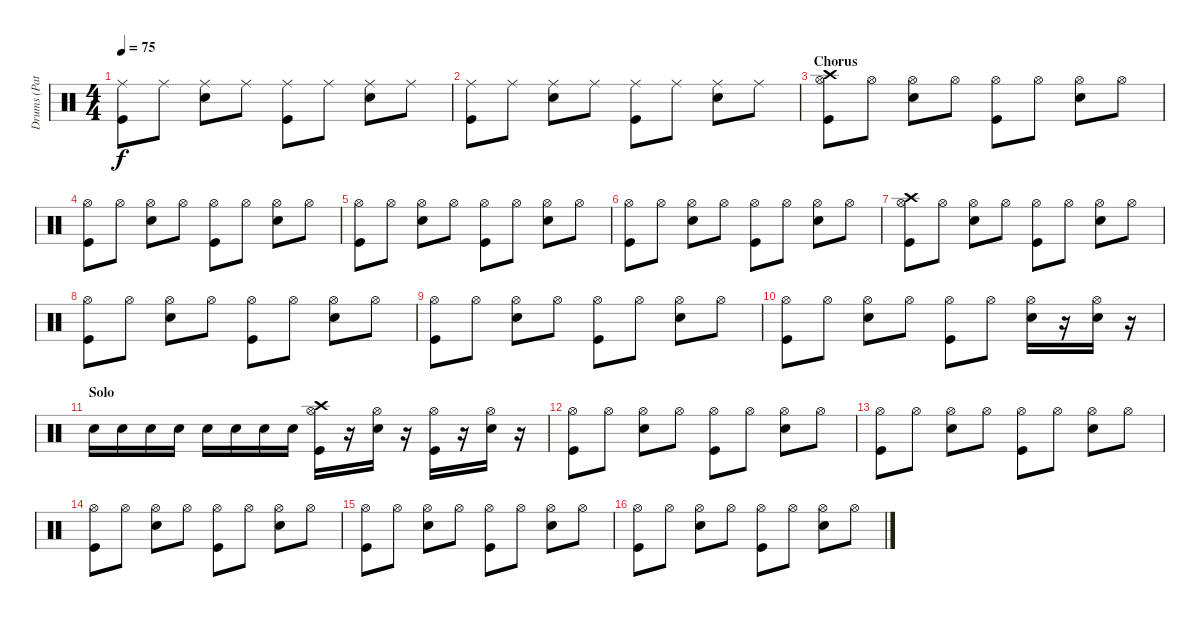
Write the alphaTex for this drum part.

\track ("Drums (Patrick Wilson)" "Drums (Pat") {instrument percussion}
\staff {score}
\articulation defaults
\ts (4 4)
\tempo 75
\clef neutral
\ks c
("Ride (middle)" "Kick (hit)").8{dy f} "Ride (middle)".8 ("Ride (middle)" "Electric Snare (hit)").8 "Ride (middle)".8 ("Ride (middle)" "Kick (hit)").8 "Ride (middle)".8 ("Ride (middle)" "Electric Snare (hit)").8 "Ride (middle)".8 |
("Ride (middle)" "Kick (hit)").8 "Ride (middle)".8 ("Ride (middle)" "Electric Snare (hit)").8 "Ride (middle)".8 ("Ride (middle)" "Kick (hit)").8 "Ride (middle)".8 ("Ride (middle)" "Electric Snare (hit)").8 "Ride (middle)".8 |
\section ("" "Chorus")
("Crash high (hit)" "Hi-Hat (open)" "Kick (hit)").8 "Hi-Hat (open)".8 ("Hi-Hat (open)" "Electric Snare (hit)").8 "Hi-Hat (open)".8 ("Hi-Hat (open)" "Kick (hit)").8 "Hi-Hat (open)".8 ("Hi-Hat (open)" "Electric Snare (hit)").8 "Hi-Hat (open)".8 |
("Hi-Hat (open)" "Kick (hit)").8 "Hi-Hat (open)".8 ("Hi-Hat (open)" "Electric Snare (hit)").8 "Hi-Hat (open)".8 ("Hi-Hat (open)" "Kick (hit)").8 "Hi-Hat (open)".8 ("Hi-Hat (open)" "Electric Snare (hit)").8 "Hi-Hat (open)".8 |
("Hi-Hat (open)" "Kick (hit)").8 "Hi-Hat (open)".8 ("Hi-Hat (open)" "Electric Snare (hit)").8 "Hi-Hat (open)".8 ("Hi-Hat (open)" "Kick (hit)").8 "Hi-Hat (open)".8 ("Hi-Hat (open)" "Electric Snare (hit)").8 "Hi-Hat (open)".8 |
("Hi-Hat (open)" "Kick (hit)").8 "Hi-Hat (open)".8 ("Hi-Hat (open)" "Electric Snare (hit)").8 "Hi-Hat (open)".8 ("Hi-Hat (open)" "Kick (hit)").8 "Hi-Hat (open)".8 ("Hi-Hat (open)" "Electric Snare (hit)").8 "Hi-Hat (open)".8 |
("Crash high (hit)" "Hi-Hat (open)" "Kick (hit)").8 "Hi-Hat (open)".8 ("Hi-Hat (open)" "Electric Snare (hit)").8 "Hi-Hat (open)".8 ("Hi-Hat (open)" "Kick (hit)").8 "Hi-Hat (open)".8 ("Hi-Hat (open)" "Electric Snare (hit)").8 "Hi-Hat (open)".8 |
("Hi-Hat (open)" "Kick (hit)").8 "Hi-Hat (open)".8 ("Hi-Hat (open)" "Electric Snare (hit)").8 "Hi-Hat (open)".8 ("Hi-Hat (open)" "Kick (hit)").8 "Hi-Hat (open)".8 ("Hi-Hat (open)" "Electric Snare (hit)").8 "Hi-Hat (open)".8 |
("Hi-Hat (open)" "Kick (hit)").8 "Hi-Hat (open)".8 ("Hi-Hat (open)" "Electric Snare (hit)").8 "Hi-Hat (open)".8 ("Hi-Hat (open)" "Kick (hit)").8 "Hi-Hat (open)".8 ("Hi-Hat (open)" "Electric Snare (hit)").8 "Hi-Hat (open)".8 |
("Hi-Hat (open)" "Kick (hit)").8 "Hi-Hat (open)".8 ("Hi-Hat (open)" "Electric Snare (hit)").8 "Hi-Hat (open)".8 ("Hi-Hat (open)" "Kick (hit)").8 "Hi-Hat (open)".8 ("Hi-Hat (open)" "Electric Snare (hit)").16 r.16 ("Hi-Hat (open)" "Electric Snare (hit)").16 r.16 |
\section ("" "Solo")
"Electric Snare (hit)".16 "Electric Snare (hit)".16 "Electric Snare (hit)".16 "Electric Snare (hit)".16 "Electric Snare (hit)".16 "Electric Snare (hit)".16 "Electric Snare (hit)".16 "Electric Snare (hit)".16 ("Crash high (hit)" "Hi-Hat (open)" "Kick (hit)").16 r.16 ("Hi-Hat (open)" "Electric Snare (hit)").16 r.16 ("Hi-Hat (open)" "Kick (hit)").16 r.16 ("Hi-Hat (open)" "Electric Snare (hit)").16 r.16 |
("Hi-Hat (open)" "Kick (hit)").8 "Hi-Hat (open)".8 ("Hi-Hat (open)" "Electric Snare (hit)").8 "Hi-Hat (open)".8 ("Hi-Hat (open)" "Kick (hit)").8 "Hi-Hat (open)".8 ("Hi-Hat (open)" "Electric Snare (hit)").8 "Hi-Hat (open)".8 |
("Hi-Hat (open)" "Kick (hit)").8 "Hi-Hat (open)".8 ("Hi-Hat (open)" "Electric Snare (hit)").8 "Hi-Hat (open)".8 ("Hi-Hat (open)" "Kick (hit)").8 "Hi-Hat (open)".8 ("Hi-Hat (open)" "Electric Snare (hit)").8 "Hi-Hat (open)".8 |
("Hi-Hat (open)" "Kick (hit)").8 "Hi-Hat (open)".8 ("Hi-Hat (open)" "Electric Snare (hit)").8 "Hi-Hat (open)".8 ("Hi-Hat (open)" "Kick (hit)").8 "Hi-Hat (open)".8 ("Hi-Hat (open)" "Electric Snare (hit)").8 "Hi-Hat (open)".8 |
("Hi-Hat (open)" "Kick (hit)").8 "Hi-Hat (open)".8 ("Hi-Hat (open)" "Electric Snare (hit)").8 "Hi-Hat (open)".8 ("Hi-Hat (open)" "Kick (hit)").8 "Hi-Hat (open)".8 ("Hi-Hat (open)" "Electric Snare (hit)").8 "Hi-Hat (open)".8 |
("Hi-Hat (open)" "Kick (hit)").8 "Hi-Hat (open)".8 ("Hi-Hat (open)" "Electric Snare (hit)").8 "Hi-Hat (open)".8 ("Hi-Hat (open)" "Kick (hit)").8 "Hi-Hat (open)".8 ("Hi-Hat (open)" "Electric Snare (hit)").8 "Hi-Hat (open)".8
